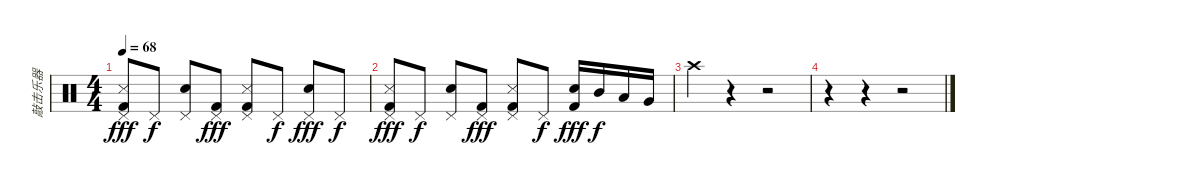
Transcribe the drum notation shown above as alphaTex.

\track ("敲击乐器" "敲击乐器") {instrument percussion}
\staff {score}
\articulation defaults
\ts (4 4)
\tempo 68
\clef neutral
\ks c
("Snare (side stick) 3" "Pedal Hi-Hat (hit)" "Kick (hit) 2").8{dy fff} "Pedal Hi-Hat (hit)".8{dy f} ("Hand Clap (hit)" "Pedal Hi-Hat (hit)").8 ("Pedal Hi-Hat (hit)" "Kick (hit) 2").8{dy fff} ("Snare (side stick) 3" "Pedal Hi-Hat (hit)" "Kick (hit) 2").8 "Pedal Hi-Hat (hit)".8{dy f} ("Hand Clap (hit)" "Pedal Hi-Hat (hit)").8{dy fff} "Pedal Hi-Hat (hit)".8{dy f} |
("Snare (side stick) 3" "Pedal Hi-Hat (hit)" "Kick (hit) 2").8{dy fff} "Pedal Hi-Hat (hit)".8{dy f} ("Hand Clap (hit)" "Pedal Hi-Hat (hit)").8 ("Pedal Hi-Hat (hit)" "Kick (hit) 2").8{dy fff} ("Snare (side stick) 3" "Pedal Hi-Hat (hit)" "Kick (hit) 2").8 "Pedal Hi-Hat (hit)".8{dy f} ("Snare (hit) 2" "Kick (hit) 2").16{dy fff} "Mid Tom (hit)".16{dy f} "Low Tom (hit)".16 "Very Low Tom (hit)".16 |
"Crash high (hit)".4 r.4 r.2 |
r.4 r.4 r.2
